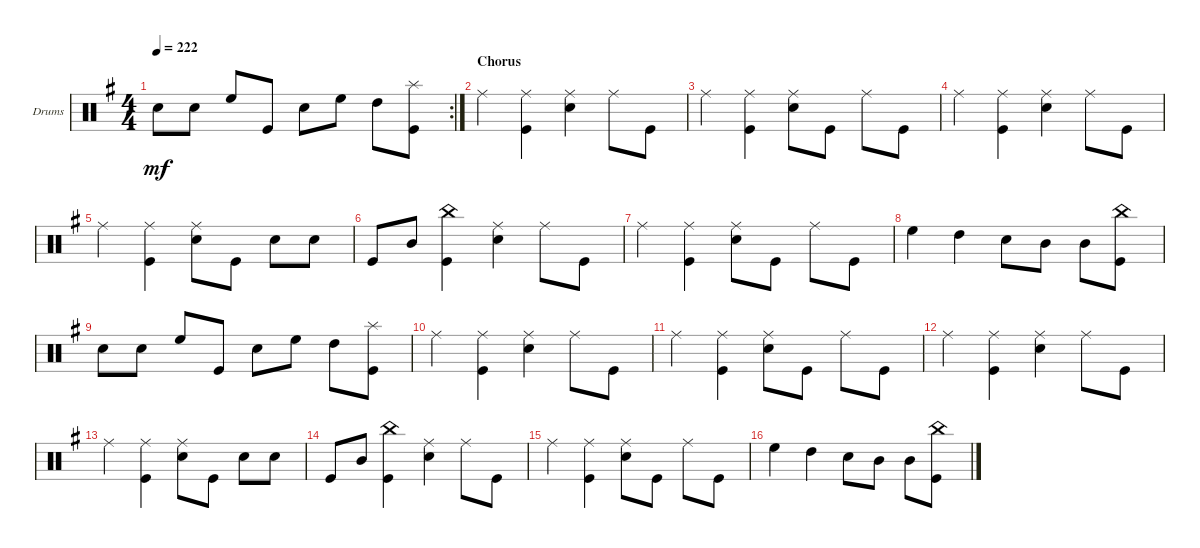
\bracketExtendMode groupsimilarinstruments
\firstSystemTrackNameOrientation horizontal
\otherSystemsTrackNameOrientation horizontal
\track ("Drumkit" "Drums") {instrument percussion}
\staff {score}
\articulation defaults
\rc 2
\ts (4 4)
\tempo 222
\clef neutral
\ks eminor "Snare (hit) 2".8{dy mf} "Snare (hit) 2".8 "High Floor Tom (hit)".8 "Kick (hit)".8 "Snare (hit) 2".8 "High Floor Tom (hit)".8 "High Tom (hit)".8
("Kick (hit)" "Splash (hit)").8 |
\section ("" "Chorus")
"Ride (middle)".4 ("Kick (hit)" "Ride (middle)").4 ("Snare (hit) 2" "Ride (middle)").4 "Ride (middle)".8 "Kick (hit)".8 |
"Ride (middle)".4 ("Kick (hit)" "Ride (middle)").4 ("Snare (hit) 2" "Ride (middle)").8 "Kick (hit)".8 "Ride (middle)".8 "Kick (hit)".8 |
"Ride (middle)".4 ("Kick (hit)" "Ride (middle)").4 ("Snare (hit) 2" "Ride (middle)").4 "Ride (middle)".8 "Kick (hit)".8 |
"Ride (middle)".4 ("Kick (hit)" "Ride (middle)").4 ("Snare (hit) 2" "Ride (middle)").8 "Kick (hit)".8 "Snare (hit) 2".8 "Snare (hit) 2".8 |
"Kick (hit)".8 "Mid Tom (hit)".8 ("Kick (hit)" "China (hit)").4 ("Snare (hit) 2" "Ride (middle)").4 "Ride (middle)".8 "Kick (hit)".8 |
"Ride (middle)".4 ("Kick (hit)" "Ride (middle)").4 ("Snare (hit) 2" "Ride (middle)").8 "Kick (hit)".8 "Ride (middle)".8 "Kick (hit)".8 |
"High Floor Tom (hit)".4 "High Tom (hit)".4 "Snare (hit) 2".8 "Mid Tom (hit)".8 "Mid Tom (hit)".8 ("Kick (hit)" "China (hit)").8 |
"Snare (hit) 2".8 "Snare (hit) 2".8 "High Floor Tom (hit)".8 "Kick (hit)".8 "Snare (hit) 2".8 "High Floor Tom (hit)".8 "High Tom (hit)".8 ("Kick (hit)" "Splash (hit)").8 |
"Ride (middle)".4 ("Kick (hit)" "Ride (middle)").4 ("Snare (hit) 2" "Ride (middle)").4 "Ride (middle)".8 "Kick (hit)".8 |
"Ride (middle)".4 ("Kick (hit)" "Ride (middle)").4 ("Snare (hit) 2" "Ride (middle)").8 "Kick (hit)".8 "Ride (middle)".8 "Kick (hit)".8 |
"Ride (middle)".4 ("Kick (hit)" "Ride (middle)").4 ("Snare (hit) 2" "Ride (middle)").4 "Ride (middle)".8 "Kick (hit)".8 |
"Ride (middle)".4 ("Kick (hit)" "Ride (middle)").4 ("Snare (hit) 2" "Ride (middle)").8 "Kick (hit)".8 "Snare (hit) 2".8 "Snare (hit) 2".8 |
"Kick (hit)".8 "Mid Tom (hit)".8 ("Kick (hit)" "China (hit)").4 ("Snare (hit) 2" "Ride (middle)").4 "Ride (middle)".8 "Kick (hit)".8 |
"Ride (middle)".4 ("Kick (hit)" "Ride (middle)").4 ("Snare (hit) 2" "Ride (middle)").8 "Kick (hit)".8 "Ride (middle)".8 "Kick (hit)".8 |
"High Floor Tom (hit)".4 "High Tom (hit)".4 "Snare (hit) 2".8 "Mid Tom (hit)".8 "Mid Tom (hit)".8 ("Kick (hit)" "China (hit)").8
